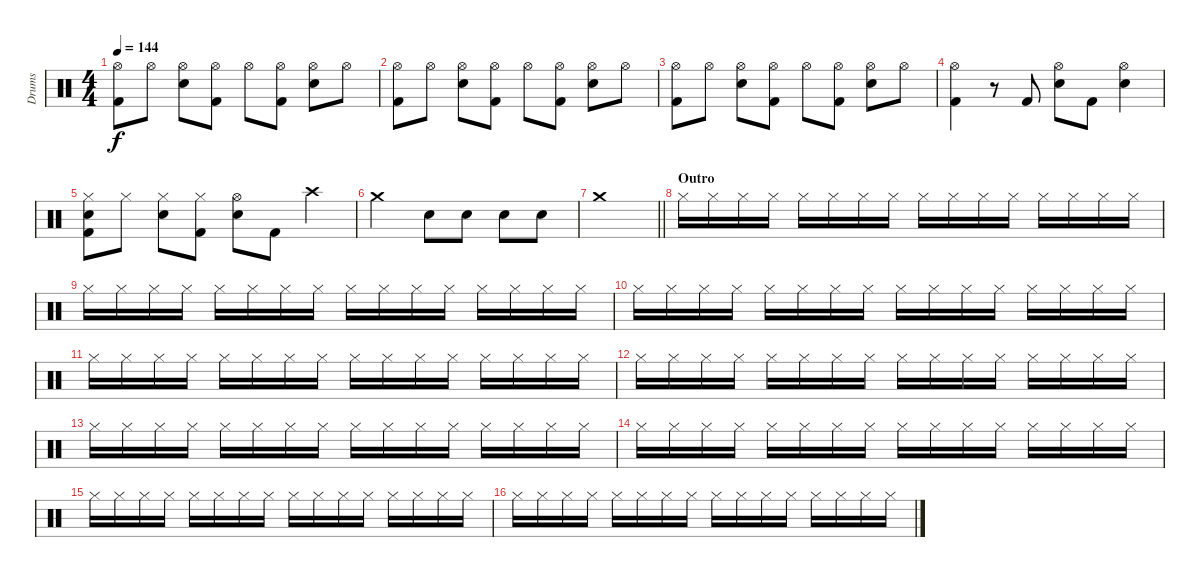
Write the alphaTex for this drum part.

\track ("Drums" "Drums") {instrument percussion}
\staff {score}
\articulation defaults
\ts (4 4)
\tempo 144
\clef neutral
\ks c
("Hi-Hat (open)" "Kick (hit) 2").8{dy f} "Hi-Hat (open)".8 ("Hi-Hat (open)" "Electric Snare (hit)").8 ("Hi-Hat (open)" "Kick (hit) 2").8 "Hi-Hat (open)".8 ("Hi-Hat (open)" "Kick (hit) 2").8 ("Hi-Hat (open)" "Electric Snare (hit)").8 "Hi-Hat (open)".8 |
("Hi-Hat (open)" "Kick (hit) 2").8 "Hi-Hat (open)".8 ("Hi-Hat (open)" "Electric Snare (hit)").8 ("Hi-Hat (open)" "Kick (hit) 2").8 "Hi-Hat (open)".8 ("Hi-Hat (open)" "Kick (hit) 2").8 ("Hi-Hat (open)" "Electric Snare (hit)").8 "Hi-Hat (open)".8 |
("Hi-Hat (open)" "Kick (hit) 2").8 "Hi-Hat (open)".8 ("Hi-Hat (open)" "Electric Snare (hit)").8 ("Hi-Hat (open)" "Kick (hit) 2").8 "Hi-Hat (open)".8 ("Hi-Hat (open)" "Kick (hit) 2").8 ("Hi-Hat (open)" "Electric Snare (hit)").8 "Hi-Hat (open)".8 |
("Hi-Hat (open)" "Kick (hit) 2").4 r.8 "Kick (hit) 2".8 ("Hi-Hat (open)" "Electric Snare (hit)").8 "Kick (hit) 2".8 ("Hi-Hat (open)" "Electric Snare (hit)").4 |
("Hi-Hat (closed)" "Electric Snare (hit)" "Kick (hit) 2").8 "Hi-Hat (closed)".8 ("Hi-Hat (closed)" "Electric Snare (hit)").8 ("Hi-Hat (closed)" "Kick (hit) 2").8 ("Hi-Hat (open)" "Electric Snare (hit)").8 "Kick (hit) 2".8 "Crash high (hit)".4 |
"Crash medium (hit)".2 "Electric Snare (hit)".8 "Electric Snare (hit)".8 "Electric Snare (hit)".8 "Electric Snare (hit)".8 |
\barLineRight lightlight "Crash medium (hit)".1
|
\section ("" "Outro")
"Hi-Hat (closed)".16 "Hi-Hat (closed)".16 "Hi-Hat (closed)".16 "Hi-Hat (closed)".16 "Hi-Hat (closed)".16 "Hi-Hat (closed)".16 "Hi-Hat (closed)".16 "Hi-Hat (closed)".16 "Hi-Hat (closed)".16 "Hi-Hat (closed)".16 "Hi-Hat (closed)".16 "Hi-Hat (closed)".16 "Hi-Hat (closed)".16 "Hi-Hat (closed)".16 "Hi-Hat (closed)".16 "Hi-Hat (closed)".16 |
"Hi-Hat (closed)".16 "Hi-Hat (closed)".16 "Hi-Hat (closed)".16 "Hi-Hat (closed)".16 "Hi-Hat (closed)".16 "Hi-Hat (closed)".16 "Hi-Hat (closed)".16 "Hi-Hat (closed)".16 "Hi-Hat (closed)".16 "Hi-Hat (closed)".16 "Hi-Hat (closed)".16 "Hi-Hat (closed)".16 "Hi-Hat (closed)".16 "Hi-Hat (closed)".16 "Hi-Hat (closed)".16 "Hi-Hat (closed)".16 |
"Hi-Hat (closed)".16 "Hi-Hat (closed)".16 "Hi-Hat (closed)".16 "Hi-Hat (closed)".16 "Hi-Hat (closed)".16 "Hi-Hat (closed)".16 "Hi-Hat (closed)".16 "Hi-Hat (closed)".16 "Hi-Hat (closed)".16 "Hi-Hat (closed)".16 "Hi-Hat (closed)".16 "Hi-Hat (closed)".16 "Hi-Hat (closed)".16 "Hi-Hat (closed)".16 "Hi-Hat (closed)".16 "Hi-Hat (closed)".16 |
"Hi-Hat (closed)".16 "Hi-Hat (closed)".16 "Hi-Hat (closed)".16 "Hi-Hat (closed)".16 "Hi-Hat (closed)".16 "Hi-Hat (closed)".16 "Hi-Hat (closed)".16 "Hi-Hat (closed)".16 "Hi-Hat (closed)".16 "Hi-Hat (closed)".16 "Hi-Hat (closed)".16 "Hi-Hat (closed)".16 "Hi-Hat (closed)".16 "Hi-Hat (closed)".16 "Hi-Hat (closed)".16 "Hi-Hat (closed)".16 |
"Hi-Hat (closed)".16 "Hi-Hat (closed)".16 "Hi-Hat (closed)".16 "Hi-Hat (closed)".16 "Hi-Hat (closed)".16 "Hi-Hat (closed)".16 "Hi-Hat (closed)".16 "Hi-Hat (closed)".16 "Hi-Hat (closed)".16 "Hi-Hat (closed)".16 "Hi-Hat (closed)".16 "Hi-Hat (closed)".16 "Hi-Hat (closed)".16 "Hi-Hat (closed)".16 "Hi-Hat (closed)".16 "Hi-Hat (closed)".16 |
"Hi-Hat (closed)".16 "Hi-Hat (closed)".16 "Hi-Hat (closed)".16 "Hi-Hat (closed)".16 "Hi-Hat (closed)".16 "Hi-Hat (closed)".16 "Hi-Hat (closed)".16 "Hi-Hat (closed)".16 "Hi-Hat (closed)".16 "Hi-Hat (closed)".16 "Hi-Hat (closed)".16 "Hi-Hat (closed)".16 "Hi-Hat (closed)".16 "Hi-Hat (closed)".16 "Hi-Hat (closed)".16 "Hi-Hat (closed)".16 |
"Hi-Hat (closed)".16 "Hi-Hat (closed)".16 "Hi-Hat (closed)".16 "Hi-Hat (closed)".16 "Hi-Hat (closed)".16 "Hi-Hat (closed)".16 "Hi-Hat (closed)".16 "Hi-Hat (closed)".16 "Hi-Hat (closed)".16 "Hi-Hat (closed)".16 "Hi-Hat (closed)".16 "Hi-Hat (closed)".16 "Hi-Hat (closed)".16 "Hi-Hat (closed)".16 "Hi-Hat (closed)".16 "Hi-Hat (closed)".16 |
"Hi-Hat (closed)".16 "Hi-Hat (closed)".16 "Hi-Hat (closed)".16 "Hi-Hat (closed)".16 "Hi-Hat (closed)".16 "Hi-Hat (closed)".16 "Hi-Hat (closed)".16 "Hi-Hat (closed)".16 "Hi-Hat (closed)".16 "Hi-Hat (closed)".16 "Hi-Hat (closed)".16 "Hi-Hat (closed)".16 "Hi-Hat (closed)".16 "Hi-Hat (closed)".16 "Hi-Hat (closed)".16 "Hi-Hat (closed)".16 |
"Hi-Hat (closed)".16 "Hi-Hat (closed)".16 "Hi-Hat (closed)".16 "Hi-Hat (closed)".16 "Hi-Hat (closed)".16 "Hi-Hat (closed)".16 "Hi-Hat (closed)".16 "Hi-Hat (closed)".16 "Hi-Hat (closed)".16 "Hi-Hat (closed)".16 "Hi-Hat (closed)".16 "Hi-Hat (closed)".16 "Hi-Hat (closed)".16 "Hi-Hat (closed)".16 "Hi-Hat (closed)".16 "Hi-Hat (closed)".16
